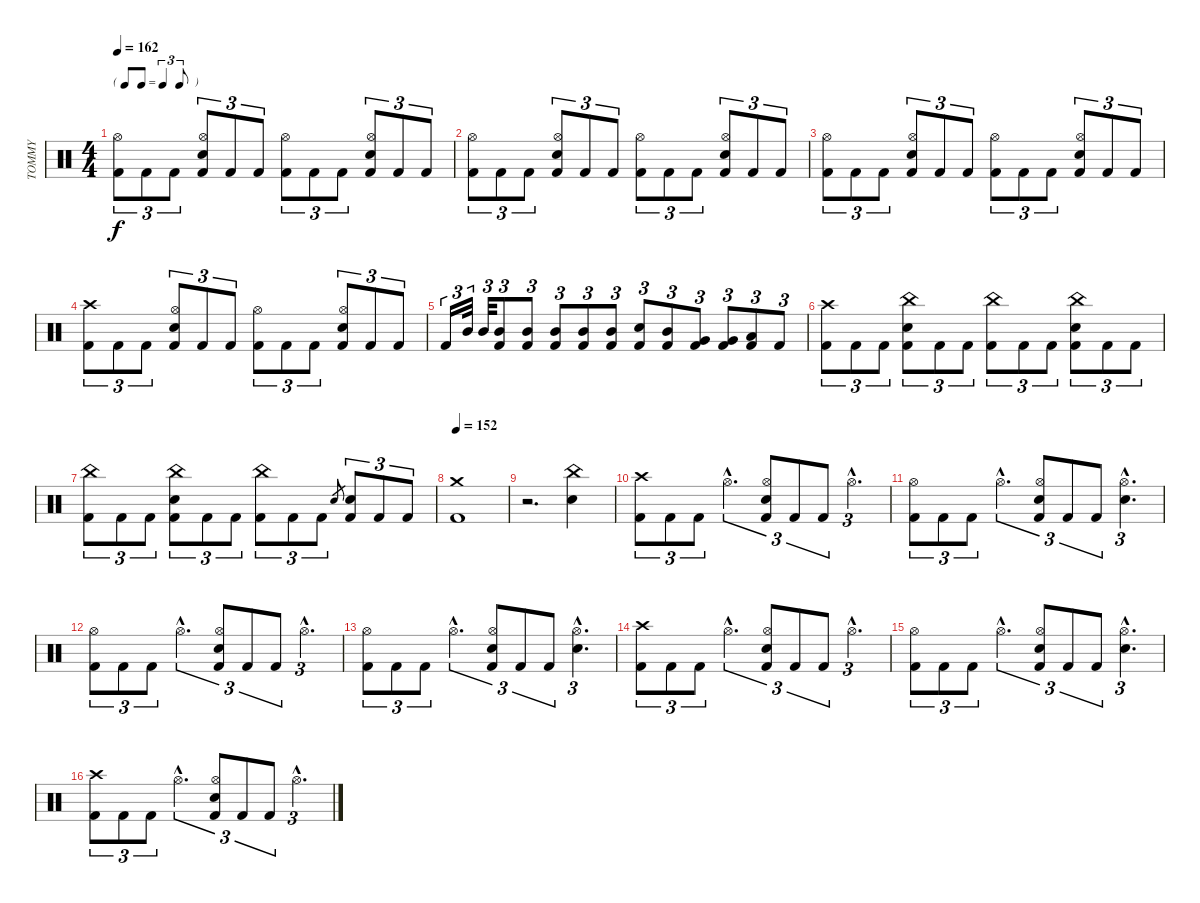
\track ("TOMMY" "TOMMY") {instrument percussion}
\staff {score}
\articulation defaults
\ts (4 4)
\tf triplet8th
\tempo 162
\clef neutral
\ks c
("Kick (hit) 2" "Hi-Hat (open)").8{tu (3 2) dy f} "Kick (hit) 2".8{tu (3 2)} "Kick (hit) 2".8{tu (3 2)} ("Snare (hit) 2" "Kick (hit) 2" "Hi-Hat (open)").8{tu (3 2)} "Kick (hit) 2".8{tu (3 2)} "Kick (hit) 2".8{tu (3 2)} ("Kick (hit) 2" "Hi-Hat (open)").8{tu (3 2)} "Kick (hit) 2".8{tu (3 2)} "Kick (hit) 2".8{tu (3 2)} ("Snare (hit) 2" "Kick (hit) 2" "Hi-Hat (open)").8{tu (3 2)} "Kick (hit) 2".8{tu (3 2)} "Kick (hit) 2".8{tu (3 2)} |
("Kick (hit) 2" "Hi-Hat (open)").8{tu (3 2)} "Kick (hit) 2".8{tu (3 2)} "Kick (hit) 2".8{tu (3 2)} ("Snare (hit) 2" "Kick (hit) 2" "Hi-Hat (open)").8{tu (3 2)} "Kick (hit) 2".8{tu (3 2)} "Kick (hit) 2".8{tu (3 2)} ("Kick (hit) 2" "Hi-Hat (open)").8{tu (3 2)} "Kick (hit) 2".8{tu (3 2)} "Kick (hit) 2".8{tu (3 2)} ("Snare (hit) 2" "Kick (hit) 2" "Hi-Hat (open)").8{tu (3 2)} "Kick (hit) 2".8{tu (3 2)} "Kick (hit) 2".8{tu (3 2)} |
("Kick (hit) 2" "Hi-Hat (open)").8{tu (3 2)} "Kick (hit) 2".8{tu (3 2)} "Kick (hit) 2".8{tu (3 2)} ("Snare (hit) 2" "Kick (hit) 2" "Hi-Hat (open)").8{tu (3 2)} "Kick (hit) 2".8{tu (3 2)} "Kick (hit) 2".8{tu (3 2)} ("Kick (hit) 2" "Hi-Hat (open)").8{tu (3 2)} "Kick (hit) 2".8{tu (3 2)} "Kick (hit) 2".8{tu (3 2)} ("Snare (hit) 2" "Kick (hit) 2" "Hi-Hat (open)").8{tu (3 2)} "Kick (hit) 2".8{tu (3 2)} "Kick (hit) 2".8{tu (3 2)} |
("Kick (hit) 2" "Crash high (hit)").8{tu (3 2)} "Kick (hit) 2".8{tu (3 2)} "Kick (hit) 2".8{tu (3 2)} ("Snare (hit) 2" "Kick (hit) 2" "Hi-Hat (open)").8{tu (3 2)} "Kick (hit) 2".8{tu (3 2)} "Kick (hit) 2".8{tu (3 2)} ("Kick (hit) 2" "Hi-Hat (open)").8{tu (3 2)} "Kick (hit) 2".8{tu (3 2)} "Kick (hit) 2".8{tu (3 2)} ("Snare (hit) 2" "Kick (hit) 2" "Hi-Hat (open)").8{tu (3 2)} "Kick (hit) 2".8{tu (3 2)} "Kick (hit) 2".8{tu (3 2)} |
"Kick (hit) 2".16{tu (3 2)} "Mid Tom (hit)".32{tu (3 2)} "Mid Tom (hit)".32{tu (3 2)} ("Kick (hit) 2" "Mid Tom (hit)").8{tu (3 2)} ("Kick (hit) 2" "Mid Tom (hit)").8{tu (3 2)} ("Kick (hit) 2" "Mid Tom (hit)").8{tu (3 2)} ("Kick (hit) 2" "Mid Tom (hit)").8{tu (3 2)} ("Kick (hit) 2" "Mid Tom (hit)").8{tu (3 2)} ("Snare (hit) 2" "Kick (hit) 2").8{tu (3 2)} ("Kick (hit) 2" "Mid Tom (hit)").8{tu (3 2)} ("Kick (hit) 2" "Very Low Tom (hit)").8{tu (3 2)} ("Kick (hit) 2" "Very Low Tom (hit)").8{tu (3 2)} ("Kick (hit) 2" "Low Floor Tom (hit)").8{tu (3 2)} "Kick (hit) 2".8{tu (3 2)} |
("Kick (hit) 2" "Crash high (hit)").8{tu (3 2)} "Kick (hit) 2".8{tu (3 2)} "Kick (hit) 2".8{tu (3 2)} ("Snare (hit) 2" "Kick (hit) 2" "China (hit)").8{tu (3 2)} "Kick (hit) 2".8{tu (3 2)} "Kick (hit) 2".8{tu (3 2)} ("Kick (hit) 2" "China (hit)").8{tu (3 2)} "Kick (hit) 2".8{tu (3 2)} "Kick (hit) 2".8{tu (3 2)} ("Snare (hit) 2" "Kick (hit) 2" "China (hit)").8{tu (3 2)} "Kick (hit) 2".8{tu (3 2)} "Kick (hit) 2".8{tu (3 2)} |
("Kick (hit) 2" "China (hit)").8{tu (3 2)} "Kick (hit) 2".8{tu (3 2)} "Kick (hit) 2".8{tu (3 2)} ("Snare (hit) 2" "Kick (hit) 2" "China (hit)").8{tu (3 2)} "Kick (hit) 2".8{tu (3 2)} "Kick (hit) 2".8{tu (3 2)} ("Kick (hit) 2" "China (hit)").8{tu (3 2)} "Kick (hit) 2".8{tu (3 2)} "Kick (hit) 2".8{tu (3 2)} "Snare (hit) 2".8{gr} ("Snare (hit) 2" "Kick (hit) 2").8{tu (3 2)} "Kick (hit) 2".8{tu (3 2)} "Kick (hit) 2".8{tu (3 2)} |
\tempo 152
("Kick (hit) 2" "Crash medium (hit)").1 |
r.2{d} ("Snare (hit) 2" "China (hit)").4 |
("Kick (hit) 2" "Crash high (hit)").8{tu (3 2)} "Kick (hit) 2".8{tu (3 2)} "Kick (hit) 2".8{tu (3 2)} "Hi-Hat (open)"{hac}.4{d tu (3 2)} ("Snare (hit) 2" "Kick (hit) 2" "Hi-Hat (open)").8{tu (3 2)} "Kick (hit) 2".8{tu (3 2)} "Kick (hit) 2".8{tu (3 2)} "Hi-Hat (open)"{hac}.4{d tu (3 2)} |
("Kick (hit) 2" "Hi-Hat (open)").8{tu (3 2)} "Kick (hit) 2".8{tu (3 2)} "Kick (hit) 2".8{tu (3 2)} "Hi-Hat (open)"{hac}.4{d tu (3 2)} ("Snare (hit) 2" "Kick (hit) 2" "Hi-Hat (open)").8{tu (3 2)} "Kick (hit) 2".8{tu (3 2)} "Kick (hit) 2".8{tu (3 2)} ("Snare (hit) 2"{hac} "Hi-Hat (open)"{hac}).4{d tu (3 2)} |
("Kick (hit) 2" "Hi-Hat (open)").8{tu (3 2)} "Kick (hit) 2".8{tu (3 2)} "Kick (hit) 2".8{tu (3 2)} "Hi-Hat (open)"{hac}.4{d tu (3 2)} ("Snare (hit) 2" "Kick (hit) 2" "Hi-Hat (open)").8{tu (3 2)} "Kick (hit) 2".8{tu (3 2)} "Kick (hit) 2".8{tu (3 2)} "Hi-Hat (open)"{hac}.4{d tu (3 2)} |
("Kick (hit) 2" "Hi-Hat (open)").8{tu (3 2)} "Kick (hit) 2".8{tu (3 2)} "Kick (hit) 2".8{tu (3 2)} "Hi-Hat (open)"{hac}.4{d tu (3 2)} ("Snare (hit) 2" "Kick (hit) 2" "Hi-Hat (open)").8{tu (3 2)} "Kick (hit) 2".8{tu (3 2)} "Kick (hit) 2".8{tu (3 2)} ("Snare (hit) 2"{hac} "Hi-Hat (open)"{hac}).4{d tu (3 2)} |
("Kick (hit) 2" "Crash high (hit)").8{tu (3 2)} "Kick (hit) 2".8{tu (3 2)} "Kick (hit) 2".8{tu (3 2)} "Hi-Hat (open)"{hac}.4{d tu (3 2)} ("Snare (hit) 2" "Kick (hit) 2" "Hi-Hat (open)").8{tu (3 2)} "Kick (hit) 2".8{tu (3 2)} "Kick (hit) 2".8{tu (3 2)} "Hi-Hat (open)"{hac}.4{d tu (3 2)} |
("Kick (hit) 2" "Hi-Hat (open)").8{tu (3 2)} "Kick (hit) 2".8{tu (3 2)} "Kick (hit) 2".8{tu (3 2)} "Hi-Hat (open)"{hac}.4{d tu (3 2)} ("Snare (hit) 2" "Kick (hit) 2" "Hi-Hat (open)").8{tu (3 2)} "Kick (hit) 2".8{tu (3 2)} "Kick (hit) 2".8{tu (3 2)} ("Snare (hit) 2"{hac} "Hi-Hat (open)"{hac}).4{d tu (3 2)} |
("Kick (hit) 2" "Crash high (hit)").8{tu (3 2)} "Kick (hit) 2".8{tu (3 2)} "Kick (hit) 2".8{tu (3 2)} "Hi-Hat (open)"{hac}.4{d tu (3 2)} ("Snare (hit) 2" "Kick (hit) 2" "Hi-Hat (open)").8{tu (3 2)} "Kick (hit) 2".8{tu (3 2)} "Kick (hit) 2".8{tu (3 2)} "Hi-Hat (open)"{hac}.4{d tu (3 2)}
